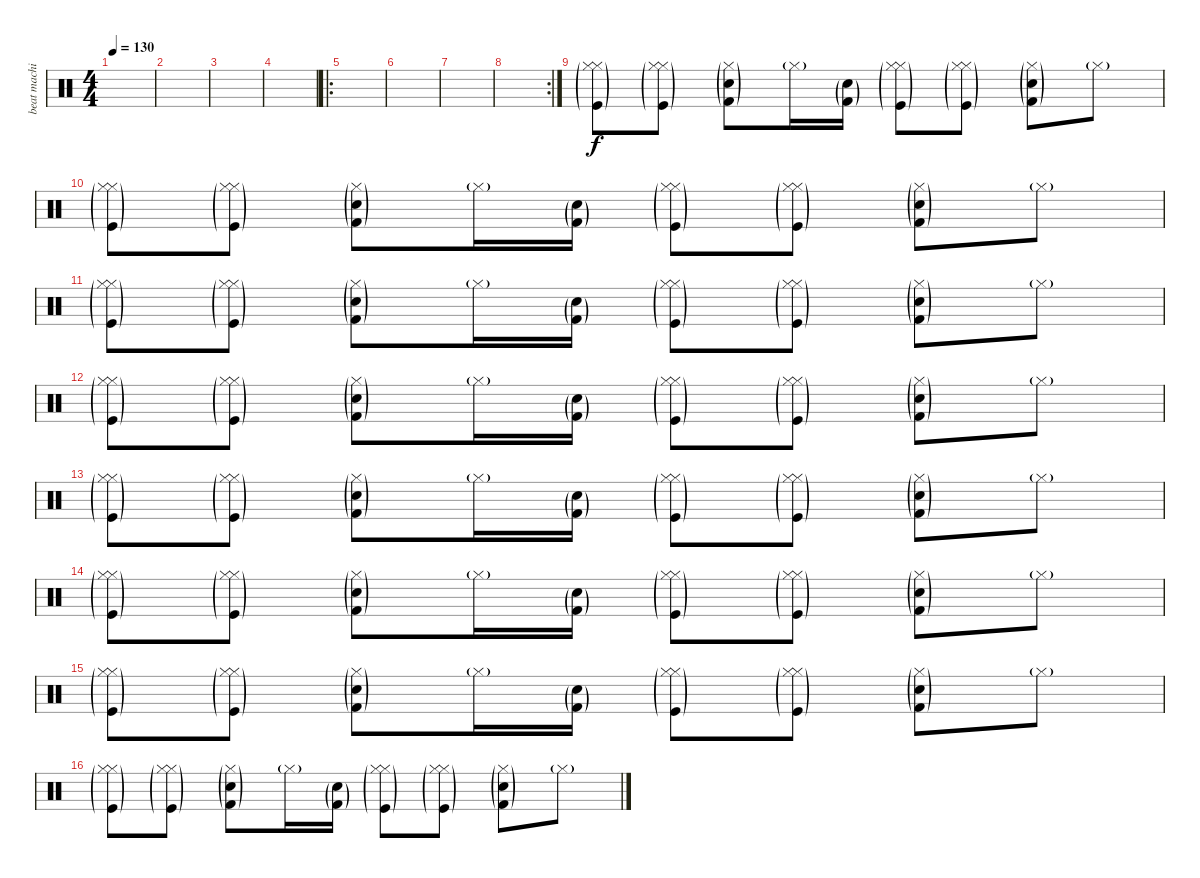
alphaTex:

\track ("beat machine" "beat machi") {instrument percussion}
\staff {score}
\articulation defaults
\ts (4 4)
\tempo 130
\clef neutral
\ks c
|
|
|
|
\ro
|
|
|
\rc 2
|
("Hi-Hat (closed)"{g} "Hi-Hat (closed)"{g} "Kick (hit)"{g}).8 ("Hi-Hat (closed)"{g} "Hi-Hat (closed)"{g} "Kick (hit)"{g}).8 ("Hi-Hat (closed)"{g} "Kick (hit) 2"{g} "Snare (hit) 2"{g}).8 "Hi-Hat (closed)"{g}.16 ("Kick (hit) 2"{g} "Snare (hit) 2"{g}).16 ("Hi-Hat (closed)"{g} "Hi-Hat (closed)"{g} "Kick (hit)"{g}).8 ("Hi-Hat (closed)"{g} "Hi-Hat (closed)"{g} "Kick (hit)"{g}).8 ("Hi-Hat (closed)"{g} "Kick (hit) 2"{g} "Snare (hit) 2"{g}).8 "Hi-Hat (closed)"{g}.8 |
("Hi-Hat (closed)"{g} "Hi-Hat (closed)"{g} "Kick (hit)"{g}).8 ("Hi-Hat (closed)"{g} "Hi-Hat (closed)"{g} "Kick (hit)"{g}).8 ("Hi-Hat (closed)"{g} "Kick (hit) 2"{g} "Snare (hit) 2"{g}).8 "Hi-Hat (closed)"{g}.16 ("Kick (hit) 2"{g} "Snare (hit) 2"{g}).16 ("Hi-Hat (closed)"{g} "Hi-Hat (closed)"{g} "Kick (hit)"{g}).8 ("Hi-Hat (closed)"{g} "Hi-Hat (closed)"{g} "Kick (hit)"{g}).8 ("Hi-Hat (closed)"{g} "Kick (hit) 2"{g} "Snare (hit) 2"{g}).8 "Hi-Hat (closed)"{g}.8 |
("Hi-Hat (closed)"{g} "Hi-Hat (closed)"{g} "Kick (hit)"{g}).8 ("Hi-Hat (closed)"{g} "Hi-Hat (closed)"{g} "Kick (hit)"{g}).8 ("Hi-Hat (closed)"{g} "Kick (hit) 2"{g} "Snare (hit) 2"{g}).8 "Hi-Hat (closed)"{g}.16 ("Kick (hit) 2"{g} "Snare (hit) 2"{g}).16 ("Hi-Hat (closed)"{g} "Hi-Hat (closed)"{g} "Kick (hit)"{g}).8 ("Hi-Hat (closed)"{g} "Hi-Hat (closed)"{g} "Kick (hit)"{g}).8 ("Hi-Hat (closed)"{g} "Kick (hit) 2"{g} "Snare (hit) 2"{g}).8 "Hi-Hat (closed)"{g}.8 |
("Hi-Hat (closed)"{g} "Hi-Hat (closed)"{g} "Kick (hit)"{g}).8 ("Hi-Hat (closed)"{g} "Hi-Hat (closed)"{g} "Kick (hit)"{g}).8 ("Hi-Hat (closed)"{g} "Kick (hit) 2"{g} "Snare (hit) 2"{g}).8 "Hi-Hat (closed)"{g}.16 ("Kick (hit) 2"{g} "Snare (hit) 2"{g}).16 ("Hi-Hat (closed)"{g} "Hi-Hat (closed)"{g} "Kick (hit)"{g}).8 ("Hi-Hat (closed)"{g} "Hi-Hat (closed)"{g} "Kick (hit)"{g}).8 ("Hi-Hat (closed)"{g} "Kick (hit) 2"{g} "Snare (hit) 2"{g}).8 "Hi-Hat (closed)"{g}.8 |
("Hi-Hat (closed)"{g} "Hi-Hat (closed)"{g} "Kick (hit)"{g}).8 ("Hi-Hat (closed)"{g} "Hi-Hat (closed)"{g} "Kick (hit)"{g}).8 ("Hi-Hat (closed)"{g} "Kick (hit) 2"{g} "Snare (hit) 2"{g}).8 "Hi-Hat (closed)"{g}.16 ("Kick (hit) 2"{g} "Snare (hit) 2"{g}).16 ("Hi-Hat (closed)"{g} "Hi-Hat (closed)"{g} "Kick (hit)"{g}).8 ("Hi-Hat (closed)"{g} "Hi-Hat (closed)"{g} "Kick (hit)"{g}).8 ("Hi-Hat (closed)"{g} "Kick (hit) 2"{g} "Snare (hit) 2"{g}).8 "Hi-Hat (closed)"{g}.8 |
("Hi-Hat (closed)"{g} "Hi-Hat (closed)"{g} "Kick (hit)"{g}).8 ("Hi-Hat (closed)"{g} "Hi-Hat (closed)"{g} "Kick (hit)"{g}).8 ("Hi-Hat (closed)"{g} "Kick (hit) 2"{g} "Snare (hit) 2"{g}).8 "Hi-Hat (closed)"{g}.16 ("Kick (hit) 2"{g} "Snare (hit) 2"{g}).16 ("Hi-Hat (closed)"{g} "Hi-Hat (closed)"{g} "Kick (hit)"{g}).8 ("Hi-Hat (closed)"{g} "Hi-Hat (closed)"{g} "Kick (hit)"{g}).8 ("Hi-Hat (closed)"{g} "Kick (hit) 2"{g} "Snare (hit) 2"{g}).8 "Hi-Hat (closed)"{g}.8 |
("Hi-Hat (closed)"{g} "Hi-Hat (closed)"{g} "Kick (hit)"{g}).8 ("Hi-Hat (closed)"{g} "Hi-Hat (closed)"{g} "Kick (hit)"{g}).8 ("Hi-Hat (closed)"{g} "Kick (hit) 2"{g} "Snare (hit) 2"{g}).8 "Hi-Hat (closed)"{g}.16 ("Kick (hit) 2"{g} "Snare (hit) 2"{g}).16 ("Hi-Hat (closed)"{g} "Hi-Hat (closed)"{g} "Kick (hit)"{g}).8 ("Hi-Hat (closed)"{g} "Hi-Hat (closed)"{g} "Kick (hit)"{g}).8 ("Hi-Hat (closed)"{g} "Kick (hit) 2"{g} "Snare (hit) 2"{g}).8 "Hi-Hat (closed)"{g}.8 |
("Hi-Hat (closed)"{g} "Hi-Hat (closed)"{g} "Kick (hit)"{g}).8 ("Hi-Hat (closed)"{g} "Hi-Hat (closed)"{g} "Kick (hit)"{g}).8 ("Hi-Hat (closed)"{g} "Kick (hit) 2"{g} "Snare (hit) 2"{g}).8 "Hi-Hat (closed)"{g}.16 ("Kick (hit) 2"{g} "Snare (hit) 2"{g}).16 ("Hi-Hat (closed)"{g} "Hi-Hat (closed)"{g} "Kick (hit)"{g}).8 ("Hi-Hat (closed)"{g} "Hi-Hat (closed)"{g} "Kick (hit)"{g}).8 ("Hi-Hat (closed)"{g} "Kick (hit) 2"{g} "Snare (hit) 2"{g}).8 "Hi-Hat (closed)"{g}.8
